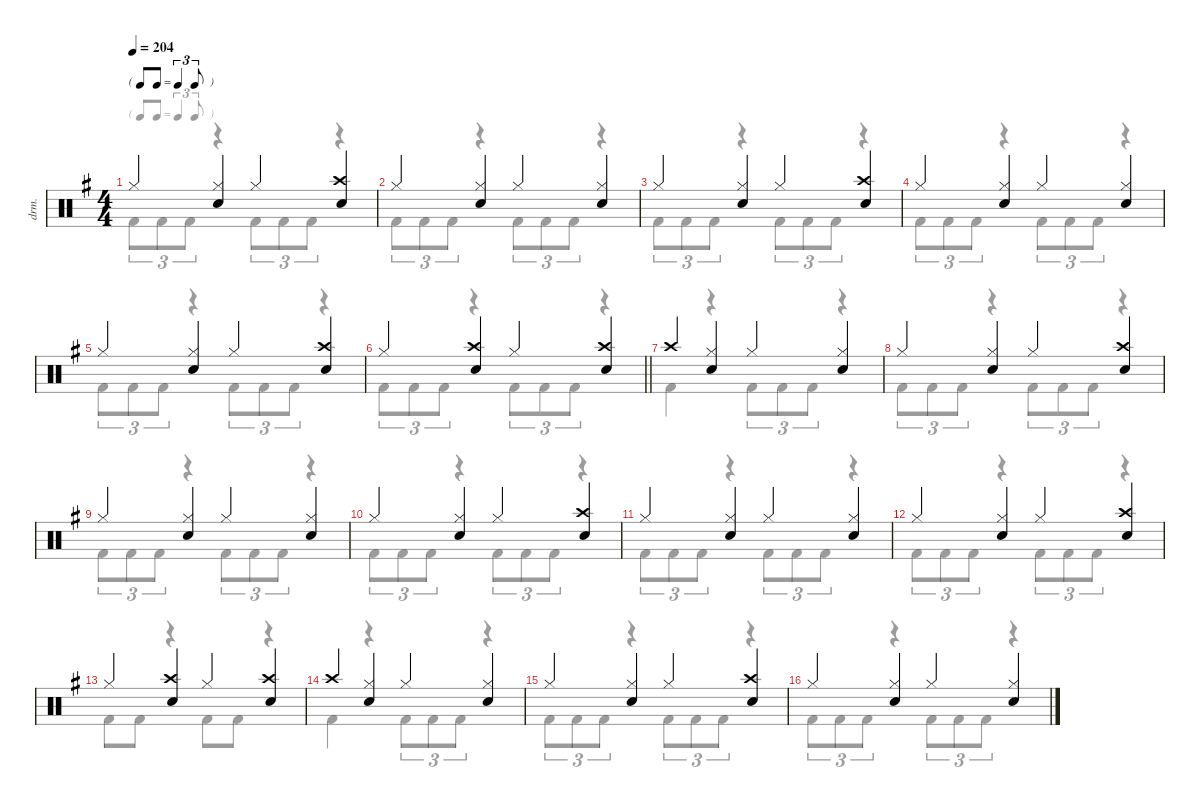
\defaultSystemsLayout 4
\hideDynamics
\bracketExtendMode nobrackets
\otherSystemsTrackNameOrientation horizontal
\track ("Lars Ulrich" "drm.") {defaultSystemsLayout 8 instrument percussion}
\staff {score}
\articulation defaults
\voice
\ts (4 4)
\tf triplet8th
\tempo 204
\clef neutral
\ks eminor "Hi-Hat (closed)"{acc forcenatural}.4{dy f beam Up}
("Hi-Hat (closed)"{acc forcenatural} "Snare (hit) 2"{acc forcenatural}).4{beam Up} "Hi-Hat (closed)"{acc forcenatural}.4{beam Up} ("Crash high (hit)"{acc forcenatural} "Snare (hit) 2"{acc forcenatural}).4{beam Up} |
"Hi-Hat (closed)"{acc forcenatural}.4{beam Up} ("Hi-Hat (closed)"{acc forcenatural} "Snare (hit) 2"{acc forcenatural}).4{beam Up} "Hi-Hat (closed)"{acc forcenatural}.4{beam Up} ("Hi-Hat (closed)"{acc forcenatural} "Snare (hit) 2"{acc forcenatural}).4{beam Up} |
"Hi-Hat (closed)"{acc forcenatural}.4{beam Up} ("Hi-Hat (closed)"{acc forcenatural} "Snare (hit) 2"{acc forcenatural}).4{beam Up} "Hi-Hat (closed)"{acc forcenatural}.4{beam Up} ("Crash high (hit)"{acc forcenatural} "Snare (hit) 2"{acc forcenatural}).4{beam Up} |
"Hi-Hat (closed)"{acc forcenatural}.4{beam Up} ("Hi-Hat (closed)"{acc forcenatural} "Snare (hit) 2"{acc forcenatural}).4{beam Up} "Hi-Hat (closed)"{acc forcenatural}.4{beam Up} ("Hi-Hat (closed)"{acc forcenatural} "Snare (hit) 2"{acc forcenatural}).4{beam Up} |
"Hi-Hat (closed)"{acc forcenatural}.4{beam Up} ("Hi-Hat (closed)"{acc forcenatural} "Snare (hit) 2"{acc forcenatural}).4{beam Up} "Hi-Hat (closed)"{acc forcenatural}.4{beam Up} ("Crash high (hit)"{acc forcenatural} "Snare (hit) 2"{acc forcenatural}).4{beam Up} |
\barLineRight lightlight "Hi-Hat (closed)"{acc forcenatural}.4{beam Up}
("Crash high (hit)"{acc forcenatural} "Snare (hit) 2"{acc forcenatural}).4{beam Up} "Hi-Hat (closed)"{acc forcenatural}.4{beam Up} ("Crash high (hit)"{acc forcenatural} "Snare (hit) 2"{acc forcenatural}).4{beam Up} |
"Crash high (hit)"{acc forcenatural}.4{beam Up} ("Hi-Hat (closed)"{acc forcenatural} "Snare (hit) 2"{acc forcenatural}).4{beam Up} "Hi-Hat (closed)"{acc forcenatural}.4{beam Up} ("Hi-Hat (closed)"{acc forcenatural} "Snare (hit) 2"{acc forcenatural}).4{beam Up} |
"Hi-Hat (closed)"{acc forcenatural}.4{beam Up} ("Hi-Hat (closed)"{acc forcenatural} "Snare (hit) 2"{acc forcenatural}).4{beam Up} "Hi-Hat (closed)"{acc forcenatural}.4{beam Up} ("Crash high (hit)"{acc forcenatural} "Snare (hit) 2"{acc forcenatural}).4{beam Up} |
"Hi-Hat (closed)"{acc forcenatural}.4{beam Up} ("Hi-Hat (closed)"{acc forcenatural} "Snare (hit) 2"{acc forcenatural}).4{beam Up} "Hi-Hat (closed)"{acc forcenatural}.4{beam Up} ("Hi-Hat (closed)"{acc forcenatural} "Snare (hit) 2"{acc forcenatural}).4{beam Up} |
"Hi-Hat (closed)"{acc forcenatural}.4{beam Up} ("Hi-Hat (closed)"{acc forcenatural} "Snare (hit) 2"{acc forcenatural}).4{beam Up} "Hi-Hat (closed)"{acc forcenatural}.4{beam Up} ("Crash high (hit)"{acc forcenatural} "Snare (hit) 2"{acc forcenatural}).4{beam Up} |
"Hi-Hat (closed)"{acc forcenatural}.4{beam Up} ("Hi-Hat (closed)"{acc forcenatural} "Snare (hit) 2"{acc forcenatural}).4{beam Up} "Hi-Hat (closed)"{acc forcenatural}.4{beam Up} ("Hi-Hat (closed)"{acc forcenatural} "Snare (hit) 2"{acc forcenatural}).4{beam Up} |
"Hi-Hat (closed)"{acc forcenatural}.4{beam Up} ("Hi-Hat (closed)"{acc forcenatural} "Snare (hit) 2"{acc forcenatural}).4{beam Up} "Hi-Hat (closed)"{acc forcenatural}.4{beam Up} ("Crash high (hit)"{acc forcenatural} "Snare (hit) 2"{acc forcenatural}).4{beam Up} |
"Hi-Hat (closed)"{acc forcenatural}.4{beam Up} ("Crash high (hit)"{acc forcenatural} "Snare (hit) 2"{acc forcenatural}).4{beam Up} "Hi-Hat (closed)"{acc forcenatural}.4{beam Up} ("Crash high (hit)"{acc forcenatural} "Snare (hit) 2"{acc forcenatural}).4{beam Up} |
"Crash high (hit)"{acc forcenatural}.4{beam Up} ("Hi-Hat (closed)"{acc forcenatural} "Snare (hit) 2"{acc forcenatural}).4{beam Up} "Hi-Hat (closed)"{acc forcenatural}.4{beam Up} ("Hi-Hat (closed)"{acc forcenatural} "Snare (hit) 2"{acc forcenatural}).4{beam Up} |
"Hi-Hat (closed)"{acc forcenatural}.4{beam Up} ("Hi-Hat (closed)"{acc forcenatural} "Snare (hit) 2"{acc forcenatural}).4{beam Up} "Hi-Hat (closed)"{acc forcenatural}.4{beam Up} ("Crash high (hit)"{acc forcenatural} "Snare (hit) 2"{acc forcenatural}).4{beam Up} |
"Hi-Hat (closed)"{acc forcenatural}.4{beam Up} ("Hi-Hat (closed)"{acc forcenatural} "Snare (hit) 2"{acc forcenatural}).4{beam Up} "Hi-Hat (closed)"{acc forcenatural}.4{beam Up} ("Hi-Hat (closed)"{acc forcenatural} "Snare (hit) 2"{acc forcenatural}).4{beam Up}
\voice
\clef neutral
\ottava regular
\simile none
\ks eminor "Kick (hit) 2"{acc forcenatural}.8{tu (3 2) dy f beam Down} "Kick (hit) 2"{acc forcenatural}.8{tu (3 2) beam Down} "Kick (hit) 2"{acc forcenatural}.8{tu (3 2) beam Down}
r.4{beam Down} "Kick (hit) 2"{acc forcenatural}.8{tu (3 2) beam Down} "Kick (hit) 2"{acc forcenatural}.8{tu (3 2) beam Down} "Kick (hit) 2"{acc forcenatural}.8{tu (3 2) beam Down} r.4{beam Down} |
"Kick (hit) 2"{acc forcenatural}.8{tu (3 2) beam Down} "Kick (hit) 2"{acc forcenatural}.8{tu (3 2) beam Down} "Kick (hit) 2"{acc forcenatural}.8{tu (3 2) beam Down} r.4{beam Down} "Kick (hit) 2"{acc forcenatural}.8{tu (3 2) beam Down} "Kick (hit) 2"{acc forcenatural}.8{tu (3 2) beam Down} "Kick (hit) 2"{acc forcenatural}.8{tu (3 2) beam Down} r.4{beam Down} |
"Kick (hit) 2"{acc forcenatural}.8{tu (3 2) beam Down} "Kick (hit) 2"{acc forcenatural}.8{tu (3 2) beam Down} "Kick (hit) 2"{acc forcenatural}.8{tu (3 2) beam Down} r.4{beam Down} "Kick (hit) 2"{acc forcenatural}.8{tu (3 2) beam Down} "Kick (hit) 2"{acc forcenatural}.8{tu (3 2) beam Down} "Kick (hit) 2"{acc forcenatural}.8{tu (3 2) beam Down} r.4{beam Down} |
"Kick (hit) 2"{acc forcenatural}.8{tu (3 2) beam Down} "Kick (hit) 2"{acc forcenatural}.8{tu (3 2) beam Down} "Kick (hit) 2"{acc forcenatural}.8{tu (3 2) beam Down} r.4{beam Down} "Kick (hit) 2"{acc forcenatural}.8{tu (3 2) beam Down} "Kick (hit) 2"{acc forcenatural}.8{tu (3 2) beam Down} "Kick (hit) 2"{acc forcenatural}.8{tu (3 2) beam Down} r.4{beam Down} |
"Kick (hit) 2"{acc forcenatural}.8{tu (3 2) beam Down} "Kick (hit) 2"{acc forcenatural}.8{tu (3 2) beam Down} "Kick (hit) 2"{acc forcenatural}.8{tu (3 2) beam Down} r.4{beam Down} "Kick (hit) 2"{acc forcenatural}.8{tu (3 2) beam Down} "Kick (hit) 2"{acc forcenatural}.8{tu (3 2) beam Down} "Kick (hit) 2"{acc forcenatural}.8{tu (3 2) beam Down} r.4{beam Down} |
\barLineRight lightlight "Kick (hit) 2"{acc forcenatural}.8{tu (3 2) beam Down} "Kick (hit) 2"{acc forcenatural}.8{tu (3 2) beam Down} "Kick (hit) 2"{acc forcenatural}.8{tu (3 2) beam Down}
r.4{beam Down} "Kick (hit) 2"{acc forcenatural}.8{tu (3 2) beam Down} "Kick (hit) 2"{acc forcenatural}.8{tu (3 2) beam Down} "Kick (hit) 2"{acc forcenatural}.8{tu (3 2) beam Down} r.4{beam Down} |
"Kick (hit) 2"{acc forcenatural}.4{beam Down} r.4{beam Down} "Kick (hit) 2"{acc forcenatural}.8{tu (3 2) beam Down} "Kick (hit) 2"{acc forcenatural}.8{tu (3 2) beam Down} "Kick (hit) 2"{acc forcenatural}.8{tu (3 2) beam Down} r.4{beam Down} |
"Kick (hit) 2"{acc forcenatural}.8{tu (3 2) beam Down} "Kick (hit) 2"{acc forcenatural}.8{tu (3 2) beam Down} "Kick (hit) 2"{acc forcenatural}.8{tu (3 2) beam Down} r.4{beam Down} "Kick (hit) 2"{acc forcenatural}.8{tu (3 2) beam Down} "Kick (hit) 2"{acc forcenatural}.8{tu (3 2) beam Down} "Kick (hit) 2"{acc forcenatural}.8{tu (3 2) beam Down} r.4{beam Down} |
"Kick (hit) 2"{acc forcenatural}.8{tu (3 2) beam Down} "Kick (hit) 2"{acc forcenatural}.8{tu (3 2) beam Down} "Kick (hit) 2"{acc forcenatural}.8{tu (3 2) beam Down} r.4{beam Down} "Kick (hit) 2"{acc forcenatural}.8{tu (3 2) beam Down} "Kick (hit) 2"{acc forcenatural}.8{tu (3 2) beam Down} "Kick (hit) 2"{acc forcenatural}.8{tu (3 2) beam Down} r.4{beam Down} |
"Kick (hit) 2"{acc forcenatural}.8{tu (3 2) beam Down} "Kick (hit) 2"{acc forcenatural}.8{tu (3 2) beam Down} "Kick (hit) 2"{acc forcenatural}.8{tu (3 2) beam Down} r.4{beam Down} "Kick (hit) 2"{acc forcenatural}.8{tu (3 2) beam Down} "Kick (hit) 2"{acc forcenatural}.8{tu (3 2) beam Down} "Kick (hit) 2"{acc forcenatural}.8{tu (3 2) beam Down} r.4{beam Down} |
"Kick (hit) 2"{acc forcenatural}.8{tu (3 2) beam Down} "Kick (hit) 2"{acc forcenatural}.8{tu (3 2) beam Down} "Kick (hit) 2"{acc forcenatural}.8{tu (3 2) beam Down} r.4{beam Down} "Kick (hit) 2"{acc forcenatural}.8{tu (3 2) beam Down} "Kick (hit) 2"{acc forcenatural}.8{tu (3 2) beam Down} "Kick (hit) 2"{acc forcenatural}.8{tu (3 2) beam Down} r.4{beam Down} |
"Kick (hit) 2"{acc forcenatural}.8{tu (3 2) beam Down} "Kick (hit) 2"{acc forcenatural}.8{tu (3 2) beam Down} "Kick (hit) 2"{acc forcenatural}.8{tu (3 2) beam Down} r.4{beam Down} "Kick (hit) 2"{acc forcenatural}.8{tu (3 2) beam Down} "Kick (hit) 2"{acc forcenatural}.8{tu (3 2) beam Down} "Kick (hit) 2"{acc forcenatural}.8{tu (3 2) beam Down} r.4{beam Down} |
"Kick (hit) 2"{acc forcenatural}.8{beam Down} "Kick (hit) 2"{acc forcenatural}.8{beam Down} r.4{beam Down} "Kick (hit) 2"{acc forcenatural}.8{beam Down} "Kick (hit) 2"{acc forcenatural}.8{beam Down} r.4{beam Down} |
"Kick (hit) 2"{acc forcenatural}.4{beam Down} r.4{beam Down} "Kick (hit) 2"{acc forcenatural}.8{tu (3 2) beam Down} "Kick (hit) 2"{acc forcenatural}.8{tu (3 2) beam Down} "Kick (hit) 2"{acc forcenatural}.8{tu (3 2) beam Down} r.4{beam Down} |
"Kick (hit) 2"{acc forcenatural}.8{tu (3 2) beam Down} "Kick (hit) 2"{acc forcenatural}.8{tu (3 2) beam Down} "Kick (hit) 2"{acc forcenatural}.8{tu (3 2) beam Down} r.4{beam Down} "Kick (hit) 2"{acc forcenatural}.8{tu (3 2) beam Down} "Kick (hit) 2"{acc forcenatural}.8{tu (3 2) beam Down} "Kick (hit) 2"{acc forcenatural}.8{tu (3 2) beam Down} r.4{beam Down} |
"Kick (hit) 2"{acc forcenatural}.8{tu (3 2) beam Down} "Kick (hit) 2"{acc forcenatural}.8{tu (3 2) beam Down} "Kick (hit) 2"{acc forcenatural}.8{tu (3 2) beam Down} r.4{beam Down} "Kick (hit) 2"{acc forcenatural}.8{tu (3 2) beam Down} "Kick (hit) 2"{acc forcenatural}.8{tu (3 2) beam Down} "Kick (hit) 2"{acc forcenatural}.8{tu (3 2) beam Down} r.4{beam Down}
